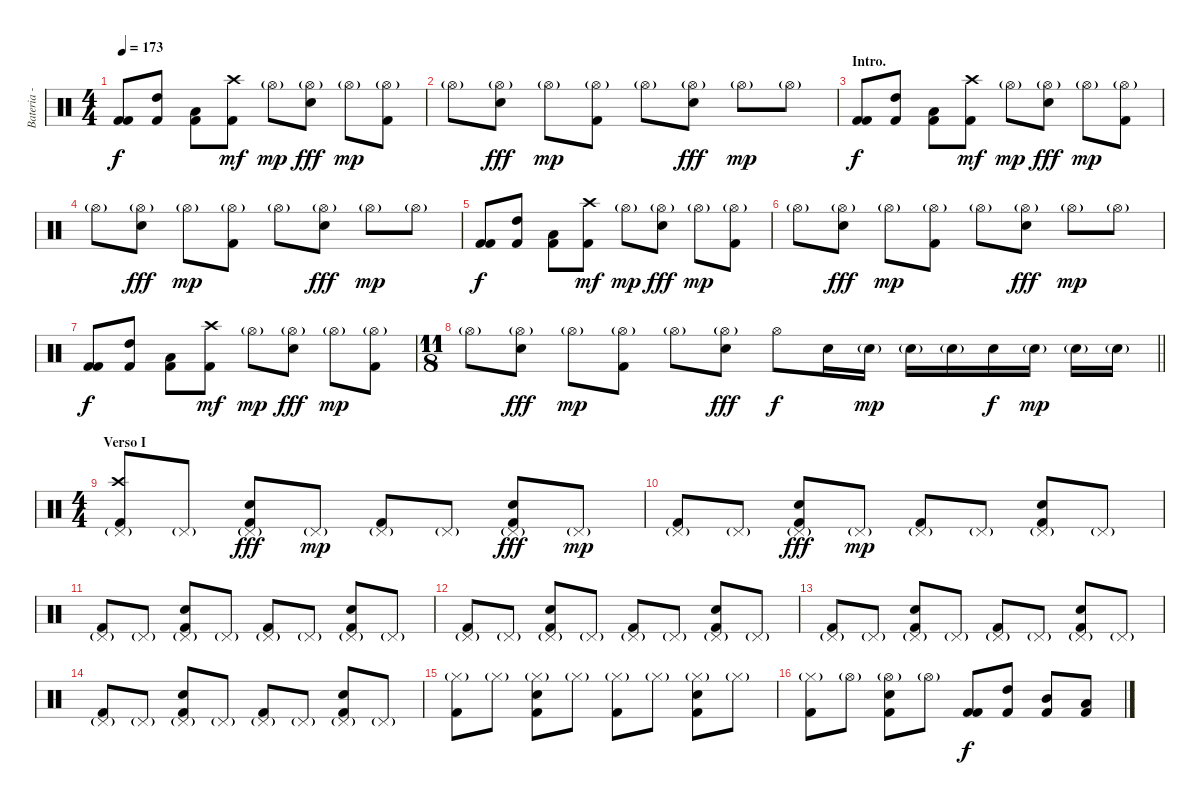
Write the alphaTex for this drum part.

\track ("Bateria - Larzon " "Bateria - ") {instrument percussion}
\staff {score}
\articulation defaults
\ts (4 4)
\tempo 173
\clef neutral
\ks c
("Kick (hit) 2" "Kick (hit) 2").8{dy f} ("High Tom (hit)" "Kick (hit) 2").8 ("Low Tom (hit)" "Kick (hit) 2").8 ("Kick (hit) 2" "Crash high (hit)").8{dy mf} "Hi-Hat (open)"{g}.8{dy mp} ("Hi-Hat (open)"{g} "Electric Snare (hit)").8{dy fff} "Hi-Hat (open)"{g}.8{dy mp} ("Kick (hit) 2" "Hi-Hat (open)"{g}).8 |
"Hi-Hat (open)"{g}.8 ("Hi-Hat (open)"{g} "Electric Snare (hit)").8{dy fff} "Hi-Hat (open)"{g}.8{dy mp} ("Kick (hit) 2" "Hi-Hat (open)"{g}).8 "Hi-Hat (open)"{g}.8 ("Hi-Hat (open)"{g} "Electric Snare (hit)").8{dy fff} "Hi-Hat (open)"{g}.8{dy mp} "Hi-Hat (open)"{g}.8 |
\section ("" "Intro.")
("Kick (hit) 2" "Kick (hit) 2").8{dy f} ("High Tom (hit)" "Kick (hit) 2").8 ("Low Tom (hit)" "Kick (hit) 2").8 ("Kick (hit) 2" "Crash high (hit)").8{dy mf} "Hi-Hat (open)"{g}.8{dy mp} ("Hi-Hat (open)"{g} "Electric Snare (hit)").8{dy fff} "Hi-Hat (open)"{g}.8{dy mp} ("Kick (hit) 2" "Hi-Hat (open)"{g}).8 |
"Hi-Hat (open)"{g}.8 ("Hi-Hat (open)"{g} "Electric Snare (hit)").8{dy fff} "Hi-Hat (open)"{g}.8{dy mp} ("Kick (hit) 2" "Hi-Hat (open)"{g}).8 "Hi-Hat (open)"{g}.8 ("Hi-Hat (open)"{g} "Electric Snare (hit)").8{dy fff} "Hi-Hat (open)"{g}.8{dy mp} "Hi-Hat (open)"{g}.8 |
("Kick (hit) 2" "Kick (hit) 2").8{dy f} ("High Tom (hit)" "Kick (hit) 2").8 ("Low Tom (hit)" "Kick (hit) 2").8 ("Crash high (hit)" "Kick (hit) 2").8{dy mf} "Hi-Hat (open)"{g}.8{dy mp} ("Hi-Hat (open)"{g} "Electric Snare (hit)").8{dy fff} "Hi-Hat (open)"{g}.8{dy mp} ("Hi-Hat (open)"{g} "Kick (hit) 2").8 |
"Hi-Hat (open)"{g}.8 ("Hi-Hat (open)"{g} "Electric Snare (hit)").8{dy fff} "Hi-Hat (open)"{g}.8{dy mp} ("Hi-Hat (open)"{g} "Kick (hit) 2").8 "Hi-Hat (open)"{g}.8 ("Hi-Hat (open)"{g} "Electric Snare (hit)").8{dy fff} "Hi-Hat (open)"{g}.8{dy mp} "Hi-Hat (open)"{g}.8 |
("Kick (hit) 2" "Kick (hit) 2").8{dy f} ("High Tom (hit)" "Kick (hit) 2").8 ("Low Tom (hit)" "Kick (hit) 2").8 ("Crash high (hit)" "Kick (hit) 2").8{dy mf} "Hi-Hat (open)"{g}.8{dy mp} ("Hi-Hat (open)"{g} "Electric Snare (hit)").8{dy fff} "Hi-Hat (open)"{g}.8{dy mp} ("Hi-Hat (open)"{g} "Kick (hit) 2").8 |
\ts (11 8)
\barLineRight lightlight "Hi-Hat (open)"{g}.8
("Hi-Hat (open)"{g} "Electric Snare (hit)").8{dy fff} "Hi-Hat (open)"{g}.8{dy mp} ("Hi-Hat (open)"{g} "Kick (hit) 2").8 "Hi-Hat (open)"{g}.8 ("Hi-Hat (open)"{g} "Electric Snare (hit)").8{dy fff} "Hi-Hat (open)".8{dy f} "Electric Snare (hit)".16 "Electric Snare (hit)"{g}.16{dy mp} "Electric Snare (hit)"{g}.16 "Electric Snare (hit)"{g}.16 "Electric Snare (hit)".16{dy f} "Electric Snare (hit)"{g}.16{dy mp} "Electric Snare (hit)"{g}.16 "Electric Snare (hit)"{g}.16 |
\ts (4 4)
\section ("" "Verso I")
("Kick (hit) 2" "Pedal Hi-Hat (hit)"{g} "Crash high (hit)").8 "Pedal Hi-Hat (hit)"{g}.8 ("Pedal Hi-Hat (hit)"{g} "Electric Snare (hit)" "Kick (hit) 2").8{dy fff} "Pedal Hi-Hat (hit)"{g}.8{dy mp} ("Kick (hit) 2" "Pedal Hi-Hat (hit)"{g}).8 "Pedal Hi-Hat (hit)"{g}.8 ("Pedal Hi-Hat (hit)"{g} "Electric Snare (hit)" "Kick (hit) 2").8{dy fff} "Pedal Hi-Hat (hit)"{g}.8{dy mp} |
("Kick (hit) 2" "Pedal Hi-Hat (hit)"{g}).8 "Pedal Hi-Hat (hit)"{g}.8 ("Pedal Hi-Hat (hit)"{g} "Electric Snare (hit)" "Kick (hit) 2").8{dy fff} "Pedal Hi-Hat (hit)"{g}.8{dy mp} ("Kick (hit) 2" "Pedal Hi-Hat (hit)"{g}).8 "Pedal Hi-Hat (hit)"{g}.8 ("Pedal Hi-Hat (hit)"{g} "Electric Snare (hit)" "Kick (hit) 2").8 "Pedal Hi-Hat (hit)"{g}.8 |
("Kick (hit) 2" "Pedal Hi-Hat (hit)"{g}).8 "Pedal Hi-Hat (hit)"{g}.8 ("Pedal Hi-Hat (hit)"{g} "Electric Snare (hit)" "Kick (hit) 2").8 "Pedal Hi-Hat (hit)"{g}.8 ("Kick (hit) 2" "Pedal Hi-Hat (hit)"{g}).8 "Pedal Hi-Hat (hit)"{g}.8 ("Pedal Hi-Hat (hit)"{g} "Electric Snare (hit)" "Kick (hit) 2").8 "Pedal Hi-Hat (hit)"{g}.8 |
("Kick (hit) 2" "Pedal Hi-Hat (hit)"{g}).8 "Pedal Hi-Hat (hit)"{g}.8 ("Pedal Hi-Hat (hit)"{g} "Electric Snare (hit)" "Kick (hit) 2").8 "Pedal Hi-Hat (hit)"{g}.8 ("Kick (hit) 2" "Pedal Hi-Hat (hit)"{g}).8 "Pedal Hi-Hat (hit)"{g}.8 ("Pedal Hi-Hat (hit)"{g} "Electric Snare (hit)" "Kick (hit) 2").8 "Pedal Hi-Hat (hit)"{g}.8 |
("Kick (hit) 2" "Pedal Hi-Hat (hit)"{g}).8 "Pedal Hi-Hat (hit)"{g}.8 ("Pedal Hi-Hat (hit)"{g} "Electric Snare (hit)" "Kick (hit) 2").8 "Pedal Hi-Hat (hit)"{g}.8 ("Kick (hit) 2" "Pedal Hi-Hat (hit)"{g}).8 "Pedal Hi-Hat (hit)"{g}.8 ("Pedal Hi-Hat (hit)"{g} "Electric Snare (hit)" "Kick (hit) 2").8 "Pedal Hi-Hat (hit)"{g}.8 |
("Kick (hit) 2" "Pedal Hi-Hat (hit)"{g}).8 "Pedal Hi-Hat (hit)"{g}.8 ("Pedal Hi-Hat (hit)"{g} "Electric Snare (hit)" "Kick (hit) 2").8 "Pedal Hi-Hat (hit)"{g}.8 ("Kick (hit) 2" "Pedal Hi-Hat (hit)"{g}).8 "Pedal Hi-Hat (hit)"{g}.8 ("Pedal Hi-Hat (hit)"{g} "Electric Snare (hit)" "Kick (hit) 2").8 "Pedal Hi-Hat (hit)"{g}.8 |
("Kick (hit) 2" "Hi-Hat (closed)"{g}).8 "Hi-Hat (closed)"{g}.8 ("Hi-Hat (closed)"{g} "Electric Snare (hit)" "Kick (hit) 2").8 "Hi-Hat (closed)"{g}.8 ("Kick (hit) 2" "Hi-Hat (closed)"{g}).8 "Hi-Hat (closed)"{g}.8 ("Hi-Hat (closed)"{g} "Electric Snare (hit)" "Kick (hit) 2").8 "Hi-Hat (closed)"{g}.8 |
("Kick (hit) 2" "Hi-Hat (closed)"{g}).8 "Hi-Hat (open)"{g}.8 ("Hi-Hat (open)"{g} "Electric Snare (hit)" "Kick (hit) 2").8 "Hi-Hat (open)"{g}.8 ("Kick (hit) 2" "Kick (hit) 2").8{dy f} ("High Tom (hit)" "Kick (hit) 2").8 ("Mid Tom (hit)" "Kick (hit) 2").8 ("Low Tom (hit)" "Kick (hit) 2").8
